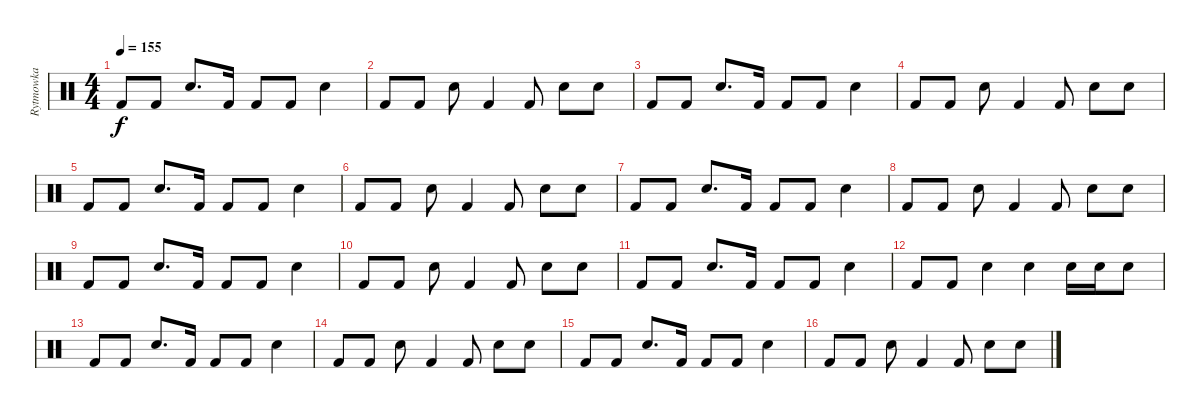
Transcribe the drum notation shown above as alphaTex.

\track ("Rytmowka" "Rytmowka") {instrument percussion}
\staff {score}
\articulation defaults
\ts (4 4)
\tempo 155
\clef neutral
\ks c "Kick (hit) 2".8{dy f} "Kick (hit) 2".8 "Snare (hit) 2".8{d} "Kick (hit) 2".16 "Kick (hit) 2".8 "Kick (hit) 2".8 "Snare (hit) 2".4
|
"Kick (hit) 2".8 "Kick (hit) 2".8 "Snare (hit) 2".8 "Kick (hit) 2".4 "Kick (hit) 2".8 "Snare (hit) 2".8 "Snare (hit) 2".8 |
"Kick (hit) 2".8 "Kick (hit) 2".8 "Snare (hit) 2".8{d} "Kick (hit) 2".16 "Kick (hit) 2".8 "Kick (hit) 2".8 "Snare (hit) 2".4 |
"Kick (hit) 2".8 "Kick (hit) 2".8 "Snare (hit) 2".8 "Kick (hit) 2".4 "Kick (hit) 2".8 "Snare (hit) 2".8 "Snare (hit) 2".8 |
"Kick (hit) 2".8 "Kick (hit) 2".8 "Snare (hit) 2".8{d} "Kick (hit) 2".16 "Kick (hit) 2".8 "Kick (hit) 2".8 "Snare (hit) 2".4 |
"Kick (hit) 2".8 "Kick (hit) 2".8 "Snare (hit) 2".8 "Kick (hit) 2".4 "Kick (hit) 2".8 "Snare (hit) 2".8 "Snare (hit) 2".8 |
"Kick (hit) 2".8 "Kick (hit) 2".8 "Snare (hit) 2".8{d} "Kick (hit) 2".16 "Kick (hit) 2".8 "Kick (hit) 2".8 "Snare (hit) 2".4 |
"Kick (hit) 2".8 "Kick (hit) 2".8 "Snare (hit) 2".8 "Kick (hit) 2".4 "Kick (hit) 2".8 "Snare (hit) 2".8 "Snare (hit) 2".8 |
"Kick (hit) 2".8 "Kick (hit) 2".8 "Snare (hit) 2".8{d} "Kick (hit) 2".16 "Kick (hit) 2".8 "Kick (hit) 2".8 "Snare (hit) 2".4 |
"Kick (hit) 2".8 "Kick (hit) 2".8 "Snare (hit) 2".8 "Kick (hit) 2".4 "Kick (hit) 2".8 "Snare (hit) 2".8 "Snare (hit) 2".8 |
"Kick (hit) 2".8 "Kick (hit) 2".8 "Snare (hit) 2".8{d} "Kick (hit) 2".16 "Kick (hit) 2".8 "Kick (hit) 2".8 "Snare (hit) 2".4 |
"Kick (hit) 2".8 "Kick (hit) 2".8 "Snare (hit) 2".4 "Snare (hit) 2".4 "Snare (hit) 2".16 "Snare (hit) 2".16 "Snare (hit) 2".8 |
"Kick (hit) 2".8 "Kick (hit) 2".8 "Snare (hit) 2".8{d} "Kick (hit) 2".16 "Kick (hit) 2".8 "Kick (hit) 2".8 "Snare (hit) 2".4 |
"Kick (hit) 2".8 "Kick (hit) 2".8 "Snare (hit) 2".8 "Kick (hit) 2".4 "Kick (hit) 2".8 "Snare (hit) 2".8 "Snare (hit) 2".8 |
"Kick (hit) 2".8 "Kick (hit) 2".8 "Snare (hit) 2".8{d} "Kick (hit) 2".16 "Kick (hit) 2".8 "Kick (hit) 2".8 "Snare (hit) 2".4 |
"Kick (hit) 2".8 "Kick (hit) 2".8 "Snare (hit) 2".8 "Kick (hit) 2".4 "Kick (hit) 2".8 "Snare (hit) 2".8 "Snare (hit) 2".8
